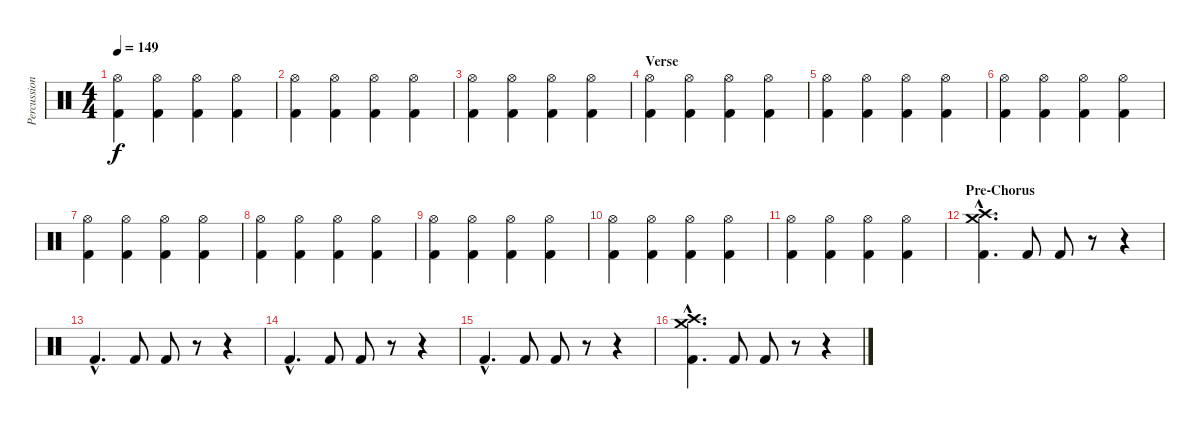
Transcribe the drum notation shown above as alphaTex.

\track ("Percussion" "Percussion") {instrument percussion}
\staff {score}
\articulation defaults
\ts (4 4)
\tempo 149
\clef neutral
\ks c
("Hi-Hat (open)" "Kick (hit) 2").4{dy f} ("Hi-Hat (open)" "Kick (hit) 2").4 ("Hi-Hat (open)" "Kick (hit) 2").4 ("Hi-Hat (open)" "Kick (hit) 2").4 |
("Hi-Hat (open)" "Kick (hit) 2").4 ("Hi-Hat (open)" "Kick (hit) 2").4 ("Hi-Hat (open)" "Kick (hit) 2").4 ("Hi-Hat (open)" "Kick (hit) 2").4 |
("Hi-Hat (open)" "Kick (hit) 2").4 ("Hi-Hat (open)" "Kick (hit) 2").4 ("Hi-Hat (open)" "Kick (hit) 2").4 ("Hi-Hat (open)" "Kick (hit) 2").4 |
\section ("" "Verse")
("Hi-Hat (open)" "Kick (hit) 2").4 ("Hi-Hat (open)" "Kick (hit) 2").4 ("Hi-Hat (open)" "Kick (hit) 2").4 ("Hi-Hat (open)" "Kick (hit) 2").4 |
("Hi-Hat (open)" "Kick (hit) 2").4 ("Hi-Hat (open)" "Kick (hit) 2").4 ("Hi-Hat (open)" "Kick (hit) 2").4 ("Hi-Hat (open)" "Kick (hit) 2").4 |
("Hi-Hat (open)" "Kick (hit) 2").4 ("Hi-Hat (open)" "Kick (hit) 2").4 ("Hi-Hat (open)" "Kick (hit) 2").4 ("Hi-Hat (open)" "Kick (hit) 2").4 |
("Hi-Hat (open)" "Kick (hit) 2").4 ("Hi-Hat (open)" "Kick (hit) 2").4 ("Hi-Hat (open)" "Kick (hit) 2").4 ("Hi-Hat (open)" "Kick (hit) 2").4 |
("Hi-Hat (open)" "Kick (hit) 2").4 ("Hi-Hat (open)" "Kick (hit) 2").4 ("Hi-Hat (open)" "Kick (hit) 2").4 ("Hi-Hat (open)" "Kick (hit) 2").4 |
("Hi-Hat (open)" "Kick (hit) 2").4 ("Hi-Hat (open)" "Kick (hit) 2").4 ("Hi-Hat (open)" "Kick (hit) 2").4 ("Hi-Hat (open)" "Kick (hit) 2").4 |
("Hi-Hat (open)" "Kick (hit) 2").4 ("Hi-Hat (open)" "Kick (hit) 2").4 ("Hi-Hat (open)" "Kick (hit) 2").4 ("Hi-Hat (open)" "Kick (hit) 2").4 |
("Hi-Hat (open)" "Kick (hit) 2").4 ("Hi-Hat (open)" "Kick (hit) 2").4 ("Hi-Hat (open)" "Kick (hit) 2").4 ("Hi-Hat (open)" "Kick (hit) 2").4 |
\section ("" "Pre-Chorus")
("Crash high (hit)"{hac} "Crash medium (hit)"{hac} "Kick (hit) 2"{hac}).4{d} "Kick (hit) 2".8 "Kick (hit) 2".8 r.8 r.4 |
"Kick (hit) 2"{hac}.4{d} "Kick (hit) 2".8 "Kick (hit) 2".8 r.8 r.4 |
"Kick (hit) 2"{hac}.4{d} "Kick (hit) 2".8 "Kick (hit) 2".8 r.8 r.4 |
"Kick (hit) 2"{hac}.4{d} "Kick (hit) 2".8 "Kick (hit) 2".8 r.8 r.4 |
("Crash high (hit)"{hac} "Crash medium (hit)"{hac} "Kick (hit) 2"{hac}).4{d} "Kick (hit) 2".8 "Kick (hit) 2".8 r.8 r.4
